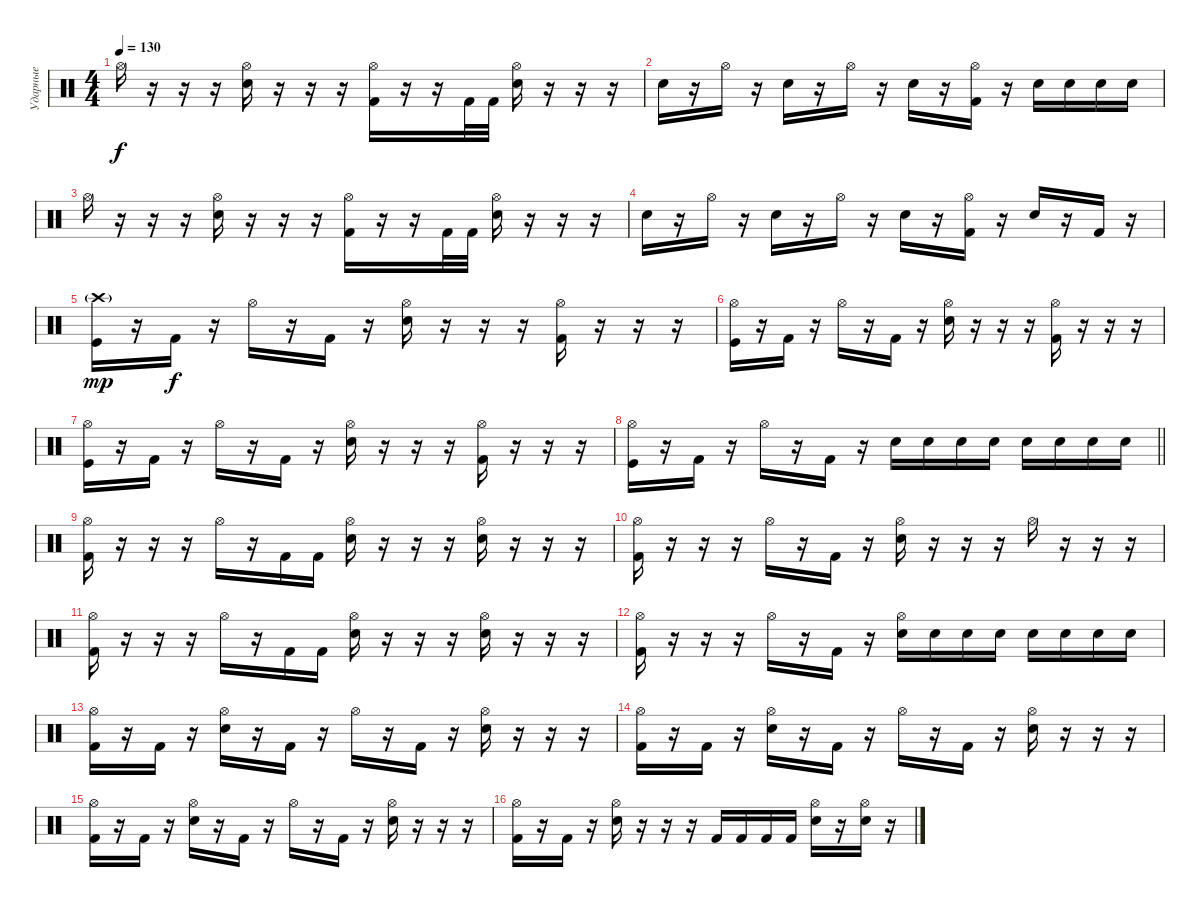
\track ("Ударные" "Ударные") {instrument percussion}
\staff {score}
\articulation defaults
\ts (4 4)
\tempo 130
\clef neutral
\ks c "Hi-Hat (open)".16{dy f}
r.16 r.16 r.16 ("Hi-Hat (open)" "Electric Snare (hit)").16 r.16 r.16 r.16 ("Hi-Hat (open)" "Kick (hit) 2").16 r.16 r.16 "Kick (hit) 2".32 "Kick (hit) 2".32 ("Hi-Hat (open)" "Electric Snare (hit)").16 r.16 r.16 r.16 |
"Electric Snare (hit)".16 r.16 "Hi-Hat (open)".16 r.16 "Electric Snare (hit)".16 r.16 "Hi-Hat (open)".16 r.16 "Electric Snare (hit)".16 r.16 ("Hi-Hat (open)" "Kick (hit) 2").16 r.16 "Electric Snare (hit)".16 "Electric Snare (hit)".16 "Electric Snare (hit)".16 "Electric Snare (hit)".16 |
"Hi-Hat (open)".16 r.16 r.16 r.16 ("Hi-Hat (open)" "Electric Snare (hit)").16 r.16 r.16 r.16 ("Hi-Hat (open)" "Kick (hit) 2").16 r.16 r.16 "Kick (hit) 2".32 "Kick (hit) 2".32 ("Hi-Hat (open)" "Electric Snare (hit)").16 r.16 r.16 r.16 |
"Electric Snare (hit)".16 r.16 "Hi-Hat (open)".16 r.16 "Electric Snare (hit)".16 r.16 "Hi-Hat (open)".16 r.16 "Electric Snare (hit)".16 r.16 ("Hi-Hat (open)" "Kick (hit) 2").16 r.16 "Electric Snare (hit)".16 r.16 "Kick (hit) 2".16 r.16 |
("Crash high (hit)"{g} "Kick (hit)").16{dy mp} r.16 "Kick (hit) 2".16{dy f} r.16 "Hi-Hat (open)".16 r.16 "Kick (hit) 2".16 r.16 ("Hi-Hat (open)" "Electric Snare (hit)").16 r.16 r.16 r.16 ("Hi-Hat (open)" "Kick (hit) 2").16 r.16 r.16 r.16 |
("Hi-Hat (open)" "Kick (hit)").16 r.16 "Kick (hit) 2".16 r.16 "Hi-Hat (open)".16 r.16 "Kick (hit) 2".16 r.16 ("Hi-Hat (open)" "Electric Snare (hit)").16 r.16 r.16 r.16 ("Hi-Hat (open)" "Kick (hit) 2").16 r.16 r.16 r.16 |
("Hi-Hat (open)" "Kick (hit)").16 r.16 "Kick (hit) 2".16 r.16 "Hi-Hat (open)".16 r.16 "Kick (hit) 2".16 r.16 ("Hi-Hat (open)" "Electric Snare (hit)").16 r.16 r.16 r.16 ("Hi-Hat (open)" "Kick (hit) 2").16 r.16 r.16 r.16 |
\barLineRight lightlight
("Hi-Hat (open)" "Kick (hit)").16 r.16 "Kick (hit) 2".16 r.16 "Hi-Hat (open)".16 r.16 "Kick (hit) 2".16 r.16 "Snare (hit) 2".16 "Electric Snare (hit)".16 "Electric Snare (hit)".16 "Electric Snare (hit)".16 "Snare (hit) 2".16 "Snare (hit) 2".16 "Snare (hit) 2".16 "Snare (hit) 2".16 |
("Hi-Hat (open)" "Kick (hit) 2").16 r.16 r.16 r.16 "Hi-Hat (open)".16 r.16 "Kick (hit) 2".16 "Kick (hit) 2".16 ("Hi-Hat (open)" "Electric Snare (hit)").16 r.16 r.16 r.16 ("Hi-Hat (open)" "Electric Snare (hit)").16 r.16 r.16 r.16 |
("Hi-Hat (open)" "Kick (hit) 2").16 r.16 r.16 r.16 "Hi-Hat (open)".16 r.16 "Kick (hit) 2".16 r.16 ("Hi-Hat (open)" "Electric Snare (hit)").16 r.16 r.16 r.16 "Hi-Hat (open)".16 r.16 r.16 r.16 |
("Hi-Hat (open)" "Kick (hit) 2").16 r.16 r.16 r.16 "Hi-Hat (open)".16 r.16 "Kick (hit) 2".16 "Kick (hit) 2".16 ("Hi-Hat (open)" "Electric Snare (hit)").16 r.16 r.16 r.16 ("Hi-Hat (open)" "Electric Snare (hit)").16 r.16 r.16 r.16 |
("Hi-Hat (open)" "Kick (hit) 2").16 r.16 r.16 r.16 "Hi-Hat (open)".16 r.16 "Kick (hit) 2".16 r.16 ("Hi-Hat (open)" "Electric Snare (hit)").16 "Electric Snare (hit)".16 "Electric Snare (hit)".16 "Electric Snare (hit)".16 "Snare (hit) 2".16 "Snare (hit) 2".16 "Snare (hit) 2".16 "Snare (hit) 2".16 |
("Kick (hit) 2" "Hi-Hat (open)").16 r.16 "Kick (hit) 2".16 r.16 ("Electric Snare (hit)" "Hi-Hat (open)").16 r.16 "Kick (hit) 2".16 r.16 "Hi-Hat (open)".16 r.16 "Kick (hit) 2".16 r.16 ("Electric Snare (hit)" "Hi-Hat (open)").16 r.16 r.16 r.16 |
("Kick (hit) 2" "Hi-Hat (open)").16 r.16 "Kick (hit) 2".16 r.16 ("Electric Snare (hit)" "Hi-Hat (open)").16 r.16 "Kick (hit) 2".16 r.16 "Hi-Hat (open)".16 r.16 "Kick (hit) 2".16 r.16 ("Electric Snare (hit)" "Hi-Hat (open)").16 r.16 r.16 r.16 |
("Kick (hit) 2" "Hi-Hat (open)").16 r.16 "Kick (hit) 2".16 r.16 ("Electric Snare (hit)" "Hi-Hat (open)").16 r.16 "Kick (hit) 2".16 r.16 "Hi-Hat (open)".16 r.16 "Kick (hit) 2".16 r.16 ("Electric Snare (hit)" "Hi-Hat (open)").16 r.16 r.16 r.16 |
("Kick (hit) 2" "Hi-Hat (open)").16 r.16 "Kick (hit) 2".16 r.16 ("Electric Snare (hit)" "Hi-Hat (open)").16 r.16 r.16 r.16 "Kick (hit) 2".16 "Kick (hit) 2".16 "Kick (hit) 2".16 "Kick (hit) 2".16 ("Electric Snare (hit)" "Hi-Hat (open)").16 r.16 ("Electric Snare (hit)" "Hi-Hat (open)").16 r.16
